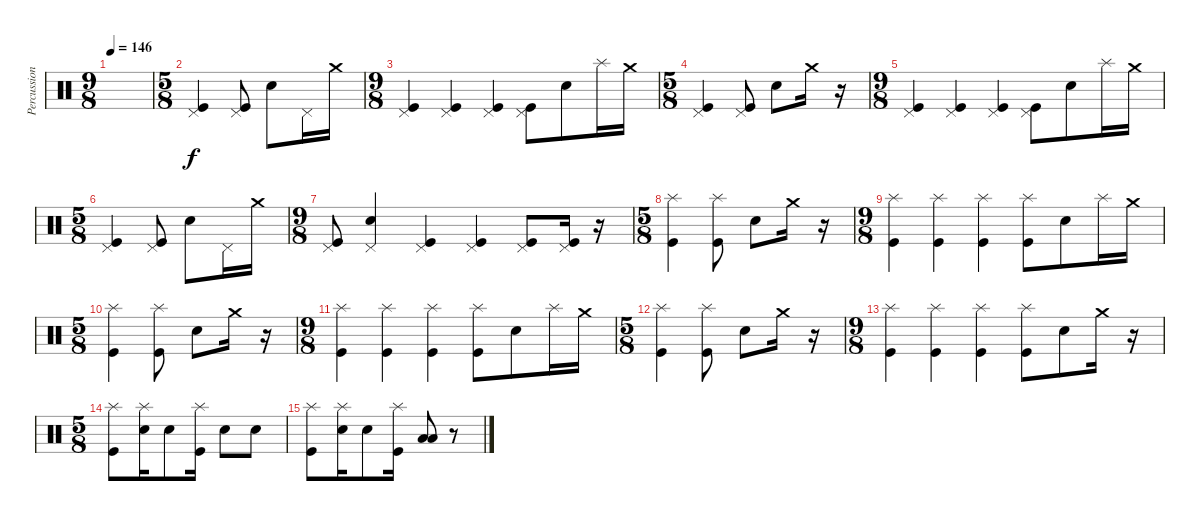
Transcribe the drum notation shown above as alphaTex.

\track ("Percussion" "Percussion") {instrument percussion}
\staff {score}
\articulation defaults
\ts (9 8)
\tempo 146
\clef neutral
\ks c
|
\ts (5 8)
("Pedal Hi-Hat (hit)" "Kick (hit)").4 ("Pedal Hi-Hat (hit)" "Kick (hit)").8 "Snare (hit) 2".8 "Pedal Hi-Hat (hit)".16 "Crash medium (hit)".16 |
\ts (9 8)
("Pedal Hi-Hat (hit)" "Kick (hit)").4 ("Pedal Hi-Hat (hit)" "Kick (hit)").4 ("Pedal Hi-Hat (hit)" "Kick (hit)").4 ("Pedal Hi-Hat (hit)" "Kick (hit)").8 "Snare (hit) 2".8 "Splash (hit)".16 "Crash medium (hit)".16 |
\ts (5 8)
("Pedal Hi-Hat (hit)" "Kick (hit)").4 ("Pedal Hi-Hat (hit)" "Kick (hit)").8 "Snare (hit) 2".8 "Crash medium (hit)".16 r.16 |
\ts (9 8)
("Pedal Hi-Hat (hit)" "Kick (hit)").4 ("Pedal Hi-Hat (hit)" "Kick (hit)").4 ("Pedal Hi-Hat (hit)" "Kick (hit)").4 ("Pedal Hi-Hat (hit)" "Kick (hit)").8 "Snare (hit) 2".8 "Splash (hit)".16 "Crash medium (hit)".16 |
\ts (5 8)
("Pedal Hi-Hat (hit)" "Kick (hit)").4 ("Pedal Hi-Hat (hit)" "Kick (hit)").8 "Snare (hit) 2".8 "Pedal Hi-Hat (hit)".16 "Crash medium (hit)".16 |
\ts (9 8)
("Pedal Hi-Hat (hit)" "Kick (hit)").8 ("Pedal Hi-Hat (hit)" "Snare (hit) 2").4 ("Pedal Hi-Hat (hit)" "Kick (hit)").4 ("Pedal Hi-Hat (hit)" "Kick (hit)").4 ("Pedal Hi-Hat (hit)" "Kick (hit)").8 ("Pedal Hi-Hat (hit)" "Kick (hit)").16 r.16 |
\ts (5 8)
("Splash (hit)" "Kick (hit)").4 ("Splash (hit)" "Kick (hit)").8 "Snare (hit) 2".8 "Crash medium (hit)".16 r.16 |
\ts (9 8)
("Splash (hit)" "Kick (hit)").4 ("Splash (hit)" "Kick (hit)").4 ("Splash (hit)" "Kick (hit)").4 ("Splash (hit)" "Kick (hit)").8 "Snare (hit) 2".8 "Splash (hit)".16 "Crash medium (hit)".16 |
\ts (5 8)
("Splash (hit)" "Kick (hit)").4 ("Splash (hit)" "Kick (hit)").8 "Snare (hit) 2".8 "Crash medium (hit)".16 r.16 |
\ts (9 8)
("Splash (hit)" "Kick (hit)").4 ("Splash (hit)" "Kick (hit)").4 ("Splash (hit)" "Kick (hit)").4 ("Splash (hit)" "Kick (hit)").8 "Snare (hit) 2".8 "Splash (hit)".16 "Crash medium (hit)".16 |
\ts (5 8)
("Splash (hit)" "Kick (hit)").4 ("Splash (hit)" "Kick (hit)").8 "Snare (hit) 2".8 "Crash medium (hit)".16 r.16 |
\ts (9 8)
("Splash (hit)" "Kick (hit)").4 ("Splash (hit)" "Kick (hit)").4 ("Splash (hit)" "Kick (hit)").4 ("Splash (hit)" "Kick (hit)").8 "Snare (hit) 2".8 "Crash medium (hit)".16 r.16 |
\ts (5 8)
("Splash (hit)" "Kick (hit)").8 ("Splash (hit)" "Snare (hit) 2").16 "Snare (hit) 2".8 ("Splash (hit)" "Kick (hit)").16 "Snare (hit) 2".8 "Snare (hit) 2".8 |
("Splash (hit)" "Kick (hit)").8 ("Splash (hit)" "Snare (hit) 2").16 "Snare (hit) 2".8 ("Splash (hit)" "Kick (hit)").16 ("Low Floor Tom (hit)" "Low Tom (hit)").8 r.8
